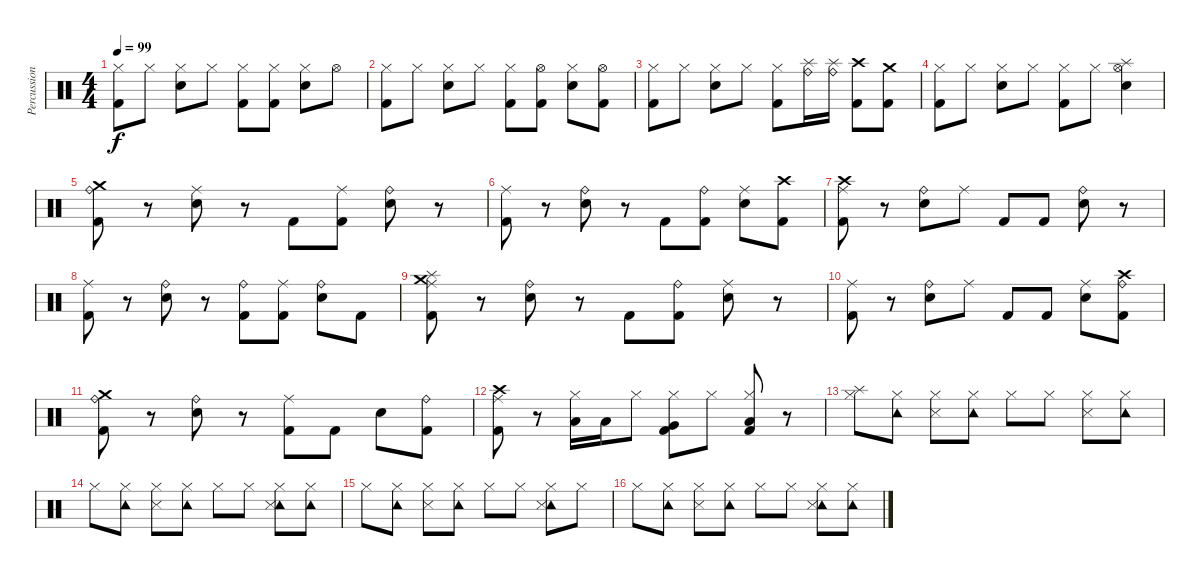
\track ("Percussion" "Percussion") {instrument percussion}
\staff {score}
\articulation defaults
\ts (4 4)
\tempo 99
\clef neutral
\ks c
("Kick (hit) 2" "Hi-Hat (closed)").8{dy f} "Hi-Hat (closed)".8 ("Snare (hit) 2" "Hi-Hat (closed)").8 "Hi-Hat (closed)".8 ("Kick (hit) 2" "Hi-Hat (closed)").8 ("Kick (hit) 2" "Hi-Hat (closed)").8 ("Snare (hit) 2" "Hi-Hat (closed)").8 "Hi-Hat (open)".8 |
("Kick (hit) 2" "Hi-Hat (closed)").8 "Hi-Hat (closed)".8 ("Snare (hit) 2" "Hi-Hat (closed)").8 "Hi-Hat (closed)".8 ("Kick (hit) 2" "Hi-Hat (closed)").8 ("Kick (hit) 2" "Hi-Hat (open)").8 ("Snare (hit) 2" "Hi-Hat (closed)").8 ("Kick (hit) 2" "Hi-Hat (open)").8 |
("Kick (hit) 2" "Hi-Hat (closed)").8 "Hi-Hat (closed)".8 ("Snare (hit) 2" "Hi-Hat (closed)").8 "Hi-Hat (closed)".8 ("Kick (hit) 2" "Hi-Hat (closed)").8 ("Splash (hit)" "Ride (bell)").16 ("Splash (hit)" "Ride (bell)").16 ("Crash high (hit)" "Kick (hit) 2").8 ("Crash medium (hit)" "Kick (hit) 2").8 |
("Kick (hit) 2" "Hi-Hat (closed)").8 "Hi-Hat (closed)".8 ("Snare (hit) 2" "Hi-Hat (closed)").8 "Hi-Hat (closed)".8 ("Kick (hit) 2" "Hi-Hat (closed)").8 "Hi-Hat (closed)".8 ("Splash (hit)" "Snare (hit) 2" "Hi-Hat (open)").4 |
("Crash medium (hit)" "Kick (hit) 2" "Ride (bell)").8 r.8 ("Snare (hit) 2" "Ride (middle)").8 r.8 "Kick (hit) 2".8 ("Kick (hit) 2" "Ride (middle)").8 ("Snare (hit) 2" "Ride (bell)").8 r.8 |
("Kick (hit) 2" "Ride (middle)").8 r.8 ("Snare (hit) 2" "Ride (bell)").8 r.8 "Kick (hit) 2".8 ("Kick (hit) 2" "Ride (bell)").8 ("Snare (hit) 2" "Ride (middle)").8 ("Crash high (hit)" "Kick (hit) 2").8 |
("Crash high (hit)" "Kick (hit) 2" "Ride (middle)").8 r.8 ("Snare (hit) 2" "Ride (bell)").8 "Ride (middle)".8 "Kick (hit) 2".8 "Kick (hit) 2".8 ("Snare (hit) 2" "Ride (bell)").8 r.8 |
("Kick (hit) 2" "Ride (middle)").8 r.8 ("Snare (hit) 2" "Ride (bell)").8 r.8 ("Kick (hit) 2" "Ride (bell)").8 ("Kick (hit) 2" "Ride (middle)").8 ("Snare (hit) 2" "Ride (bell)").8 "Kick (hit) 2".8 |
("Splash (hit)" "Crash medium (hit)" "Kick (hit) 2" "Ride (middle)").8 r.8 ("Snare (hit) 2" "Ride (bell)").8 r.8 "Kick (hit) 2".8 ("Kick (hit) 2" "Ride (bell)").8 ("Snare (hit) 2" "Ride (middle)").8 r.8 |
("Kick (hit) 2" "Ride (middle)").8 r.8 ("Snare (hit) 2" "Ride (bell)").8 "Ride (middle)".8 "Kick (hit) 2".8 "Kick (hit) 2".8 ("Snare (hit) 2" "Ride (middle)").8 ("Crash high (hit)" "Kick (hit) 2" "Ride (bell)").8 |
("Crash medium (hit)" "Kick (hit) 2" "Ride (bell)").8 r.8 ("Snare (hit) 2" "Ride (bell)").8 r.8 ("Kick (hit) 2" "Ride (middle)").8 "Kick (hit) 2".8 "Snare (hit) 2".8 ("Kick (hit) 2" "Ride (bell)").8 |
("Crash high (hit)" "Kick (hit) 2" "Ride (middle)").8 r.8 ("Low Tom (hit)" "Hi-Hat (closed)").16 "Low Tom (hit)".16 "Hi-Hat (closed)".8 ("Very Low Tom (hit)" "Kick (hit) 2" "Hi-Hat (closed)").8 "Hi-Hat (closed)".8 ("Low Floor Tom (hit)" "Kick (hit) 2" "Hi-Hat (closed)").8 r.8 |
("Splash (hit)" "Hi-Hat (closed)").8{volume 10} ("Tambourine (hit)" "Hi-Hat (closed)").8 ("Snare (side stick) 3" "Hi-Hat (closed)").8 ("Tambourine (hit)" "Hi-Hat (closed)").8 "Hi-Hat (closed)".8 "Hi-Hat (closed)".8 ("Snare (side stick) 3" "Hi-Hat (closed)").8 ("Tambourine (hit)" "Hi-Hat (closed)").8 |
"Hi-Hat (closed)".8 ("Tambourine (hit)" "Hi-Hat (closed)").8 ("Snare (side stick) 3" "Hi-Hat (closed)").8 ("Tambourine (hit)" "Hi-Hat (closed)").8 "Hi-Hat (closed)".8 "Hi-Hat (closed)".8 ("Tambourine (hit)" "Snare (side stick) 3" "Hi-Hat (closed)").8 ("Tambourine (hit)" "Hi-Hat (closed)").8 |
"Hi-Hat (closed)".8 ("Tambourine (hit)" "Hi-Hat (closed)").8 ("Snare (side stick) 3" "Hi-Hat (closed)").8 ("Tambourine (hit)" "Hi-Hat (closed)").8 "Hi-Hat (closed)".8 "Hi-Hat (closed)".8 ("Tambourine (hit)" "Snare (side stick) 3" "Hi-Hat (closed)").8 "Hi-Hat (closed)".8 |
"Hi-Hat (closed)".8 ("Tambourine (hit)" "Hi-Hat (closed)").8 ("Snare (side stick) 3" "Hi-Hat (closed)").8 ("Tambourine (hit)" "Hi-Hat (closed)").8 "Hi-Hat (closed)".8 "Hi-Hat (closed)".8 ("Tambourine (hit)" "Snare (side stick) 3" "Hi-Hat (closed)").8 ("Tambourine (hit)" "Hi-Hat (closed)").8
